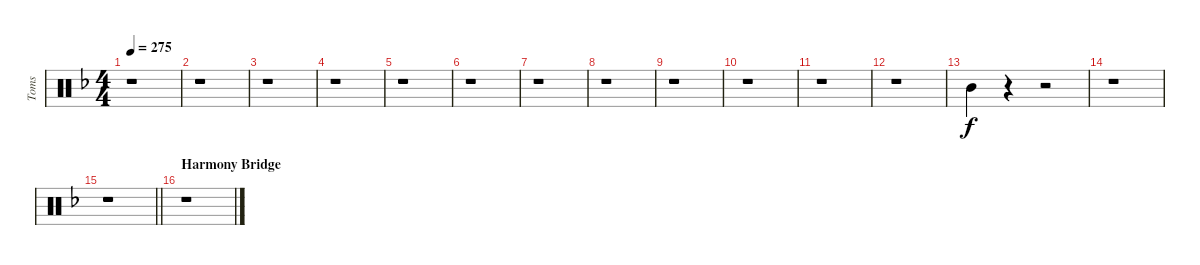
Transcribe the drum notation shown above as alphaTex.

\track ("Toms" "Toms") {instrument percussion}
\staff {score}
\articulation defaults
\ts (4 4)
\tempo 275
\clef neutral
\ks dminor
r.1{dy ff} |
r.1 |
r.1 |
r.1 |
r.1 |
r.1 |
r.1 |
r.1 |
r.1 |
r.1 |
r.1 |
r.1 |
"Mid Tom (hit)".4{dy f} r.4 r.2 |
r.1 |
\barLineRight lightlight
r.1 |
\section ("" "Harmony Bridge")
r.1
